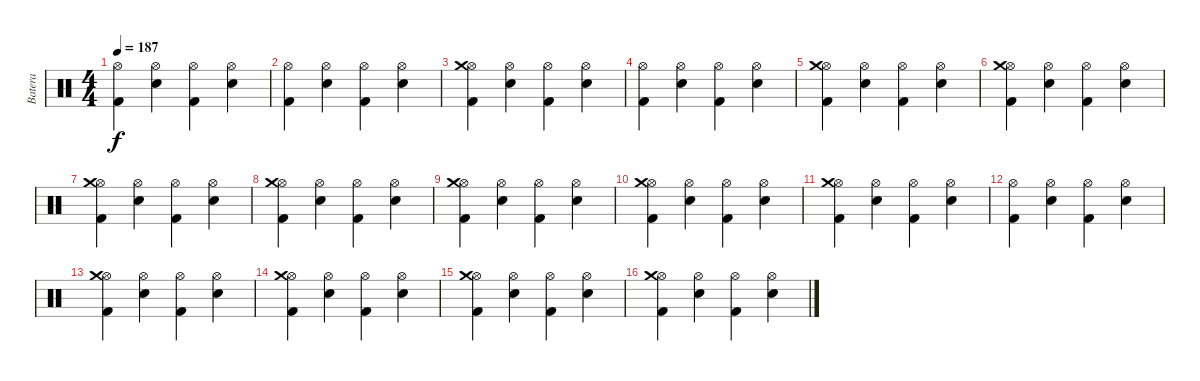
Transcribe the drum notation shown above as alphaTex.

\track ("Batera" "Batera") {instrument percussion}
\staff {score}
\articulation defaults
\ts (4 4)
\tempo 187
\clef neutral
\ks c
("Hi-Hat (open)" "Kick (hit) 2").4{dy f} ("Hi-Hat (open)" "Electric Snare (hit)").4 ("Hi-Hat (open)" "Kick (hit) 2").4 ("Hi-Hat (open)" "Electric Snare (hit)").4 |
("Hi-Hat (open)" "Kick (hit) 2").4 ("Hi-Hat (open)" "Electric Snare (hit)").4 ("Hi-Hat (open)" "Kick (hit) 2").4 ("Hi-Hat (open)" "Electric Snare (hit)").4 |
("Hi-Hat (open)" "Kick (hit) 2" "Crash medium (hit)").4 ("Hi-Hat (open)" "Electric Snare (hit)").4 ("Hi-Hat (open)" "Kick (hit) 2").4 ("Hi-Hat (open)" "Electric Snare (hit)").4 |
("Hi-Hat (open)" "Kick (hit) 2").4 ("Hi-Hat (open)" "Electric Snare (hit)").4 ("Hi-Hat (open)" "Kick (hit) 2").4 ("Hi-Hat (open)" "Electric Snare (hit)").4 |
("Hi-Hat (open)" "Kick (hit) 2" "Crash medium (hit)").4 ("Hi-Hat (open)" "Electric Snare (hit)").4 ("Hi-Hat (open)" "Kick (hit) 2").4 ("Hi-Hat (open)" "Electric Snare (hit)").4 |
("Hi-Hat (open)" "Kick (hit) 2" "Crash medium (hit)").4 ("Hi-Hat (open)" "Electric Snare (hit)").4 ("Hi-Hat (open)" "Kick (hit) 2").4 ("Hi-Hat (open)" "Electric Snare (hit)").4 |
("Hi-Hat (open)" "Kick (hit) 2" "Crash medium (hit)").4 ("Hi-Hat (open)" "Electric Snare (hit)").4 ("Hi-Hat (open)" "Kick (hit) 2").4 ("Hi-Hat (open)" "Electric Snare (hit)").4 |
("Hi-Hat (open)" "Kick (hit) 2" "Crash medium (hit)").4 ("Hi-Hat (open)" "Electric Snare (hit)").4 ("Hi-Hat (open)" "Kick (hit) 2").4 ("Hi-Hat (open)" "Electric Snare (hit)").4 |
("Hi-Hat (open)" "Kick (hit) 2" "Crash medium (hit)").4 ("Hi-Hat (open)" "Electric Snare (hit)").4 ("Hi-Hat (open)" "Kick (hit) 2").4 ("Hi-Hat (open)" "Electric Snare (hit)").4 |
("Hi-Hat (open)" "Kick (hit) 2" "Crash medium (hit)").4 ("Hi-Hat (open)" "Electric Snare (hit)").4 ("Hi-Hat (open)" "Kick (hit) 2").4 ("Hi-Hat (open)" "Electric Snare (hit)").4 |
("Hi-Hat (open)" "Kick (hit) 2" "Crash medium (hit)").4 ("Hi-Hat (open)" "Electric Snare (hit)").4 ("Hi-Hat (open)" "Kick (hit) 2").4 ("Hi-Hat (open)" "Electric Snare (hit)").4 |
("Hi-Hat (open)" "Kick (hit) 2").4 ("Hi-Hat (open)" "Electric Snare (hit)").4 ("Hi-Hat (open)" "Kick (hit) 2").4 ("Hi-Hat (open)" "Electric Snare (hit)").4 |
("Hi-Hat (open)" "Kick (hit) 2" "Crash medium (hit)").4 ("Hi-Hat (open)" "Electric Snare (hit)").4 ("Hi-Hat (open)" "Kick (hit) 2").4 ("Hi-Hat (open)" "Electric Snare (hit)").4 |
("Hi-Hat (open)" "Kick (hit) 2" "Crash medium (hit)").4 ("Hi-Hat (open)" "Electric Snare (hit)").4 ("Hi-Hat (open)" "Kick (hit) 2").4 ("Hi-Hat (open)" "Electric Snare (hit)").4 |
("Hi-Hat (open)" "Kick (hit) 2" "Crash medium (hit)").4 ("Hi-Hat (open)" "Electric Snare (hit)").4 ("Hi-Hat (open)" "Kick (hit) 2").4 ("Hi-Hat (open)" "Electric Snare (hit)").4 |
("Hi-Hat (open)" "Kick (hit) 2" "Crash medium (hit)").4 ("Hi-Hat (open)" "Electric Snare (hit)").4 ("Hi-Hat (open)" "Kick (hit) 2").4 ("Hi-Hat (open)" "Electric Snare (hit)").4
